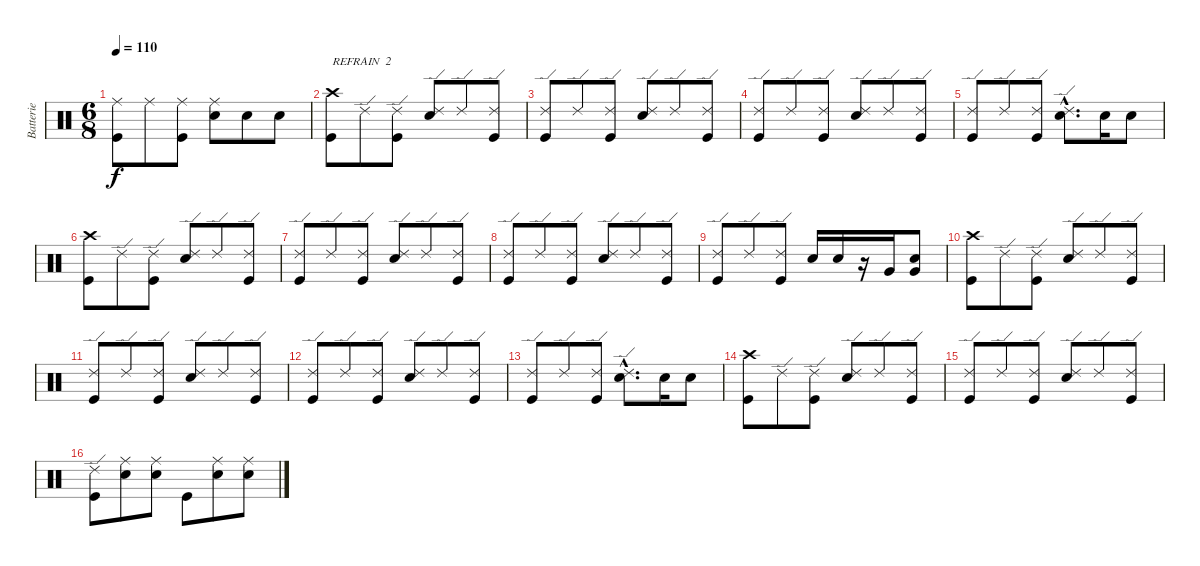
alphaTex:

\track ("Batterie" "Batterie") {instrument percussion}
\staff {score}
\articulation defaults
\ts (6 8)
\tempo 110
\clef neutral
\ks c
("Ride (middle)" "Kick (hit)").8{dy f} "Ride (middle)".8 ("Ride (middle)" "Kick (hit)").8 ("Ride (middle)" "Snare (hit) 2").8 "Snare (hit) 2".8 "Snare (hit) 2".8 |
("Crash high (hit)" "Kick (hit)").8{txt "REFRAIN  2"} "Ride (edge) 2".8 ("Ride (edge) 2" "Kick (hit)").8 ("Ride (edge) 2" "Snare (hit) 2").8 "Ride (edge) 2".8 ("Ride (edge) 2" "Kick (hit)").8 |
("Ride (edge) 2" "Kick (hit)").8 "Ride (edge) 2".8 ("Ride (edge) 2" "Kick (hit)").8 ("Ride (edge) 2" "Snare (hit) 2").8 "Ride (edge) 2".8 ("Ride (edge) 2" "Kick (hit)").8 |
("Ride (edge) 2" "Kick (hit)").8 "Ride (edge) 2".8 ("Ride (edge) 2" "Kick (hit)").8 ("Ride (edge) 2" "Snare (hit) 2").8 "Ride (edge) 2".8 ("Ride (edge) 2" "Kick (hit)").8 |
("Ride (edge) 2" "Kick (hit)").8 "Ride (edge) 2".8 ("Ride (edge) 2" "Kick (hit)").8 ("Ride (edge) 2"{hac} "Snare (hit) 2"{hac}).8{d} "Snare (hit) 2".16 "Snare (hit) 2".8 |
("Crash high (hit)" "Kick (hit)").8 "Ride (edge) 2".8 ("Ride (edge) 2" "Kick (hit)").8 ("Ride (edge) 2" "Snare (hit) 2").8 "Ride (edge) 2".8 ("Ride (edge) 2" "Kick (hit)").8 |
("Ride (edge) 2" "Kick (hit)").8 "Ride (edge) 2".8 ("Ride (edge) 2" "Kick (hit)").8 ("Ride (edge) 2" "Snare (hit) 2").8 "Ride (edge) 2".8 ("Ride (edge) 2" "Kick (hit)").8 |
("Ride (edge) 2" "Kick (hit)").8 "Ride (edge) 2".8 ("Ride (edge) 2" "Kick (hit)").8 ("Ride (edge) 2" "Snare (hit) 2").8 "Ride (edge) 2".8 ("Ride (edge) 2" "Kick (hit)").8 |
("Ride (edge) 2" "Kick (hit)").8 "Ride (edge) 2".8 ("Ride (edge) 2" "Kick (hit)").8 "Snare (hit) 2".16 "Snare (hit) 2".16 r.16 "Very Low Tom (hit)".16 ("Snare (hit) 2" "Very Low Tom (hit)").8 |
("Crash high (hit)" "Kick (hit)").8 "Ride (edge) 2".8 ("Ride (edge) 2" "Kick (hit)").8 ("Ride (edge) 2" "Snare (hit) 2").8 "Ride (edge) 2".8 ("Ride (edge) 2" "Kick (hit)").8 |
("Ride (edge) 2" "Kick (hit)").8 "Ride (edge) 2".8 ("Ride (edge) 2" "Kick (hit)").8 ("Ride (edge) 2" "Snare (hit) 2").8 "Ride (edge) 2".8 ("Ride (edge) 2" "Kick (hit)").8 |
("Ride (edge) 2" "Kick (hit)").8 "Ride (edge) 2".8 ("Ride (edge) 2" "Kick (hit)").8 ("Ride (edge) 2" "Snare (hit) 2").8 "Ride (edge) 2".8 ("Ride (edge) 2" "Kick (hit)").8 |
("Ride (edge) 2" "Kick (hit)").8 "Ride (edge) 2".8 ("Ride (edge) 2" "Kick (hit)").8 ("Ride (edge) 2"{hac} "Snare (hit) 2"{hac}).8{d} "Snare (hit) 2".16 "Snare (hit) 2".8 |
("Crash high (hit)" "Kick (hit)").8 "Ride (edge) 2".8 ("Ride (edge) 2" "Kick (hit)").8 ("Ride (edge) 2" "Snare (hit) 2").8 "Ride (edge) 2".8 ("Ride (edge) 2" "Kick (hit)").8 |
("Ride (edge) 2" "Kick (hit)").8 "Ride (edge) 2".8 ("Ride (edge) 2" "Kick (hit)").8 ("Ride (edge) 2" "Snare (hit) 2").8 "Ride (edge) 2".8 ("Ride (edge) 2" "Kick (hit)").8 |
("Ride (edge) 2" "Kick (hit)").8 ("Ride (middle)" "Snare (hit) 2").8 ("Ride (middle)" "Snare (hit) 2").8 "Kick (hit)".8 ("Ride (middle)" "Snare (hit) 2").8 ("Ride (middle)" "Snare (hit) 2").8
